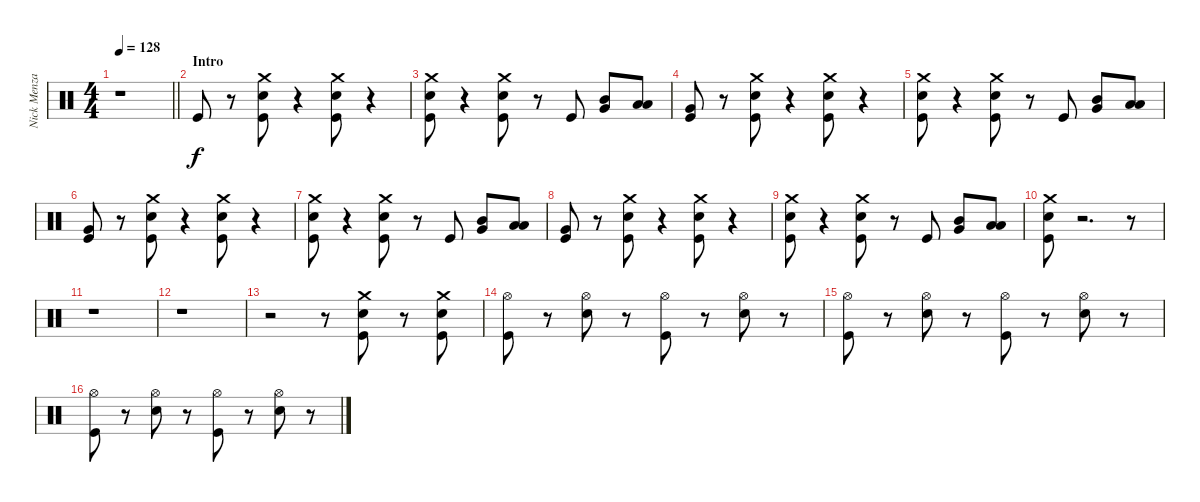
\track ("Nick Menza" "Nick Menza") {instrument percussion}
\staff {score}
\articulation defaults
\ts (4 4)
\tempo 128
\clef neutral
\barLineRight lightlight
\ks c
r.1{dy f} |
\section ("" "Intro")
"Kick (hit)".8 r.8 ("Kick (hit)" "Electric Snare (hit)" "Crash medium (hit)").8 r.4 ("Kick (hit)" "Electric Snare (hit)" "Crash medium (hit)").8 r.4 |
("Kick (hit)" "Electric Snare (hit)" "Crash medium (hit)").8 r.4 ("Kick (hit)" "Electric Snare (hit)" "Crash medium (hit)").8 r.8 "Kick (hit)".8 ("Mid Tom (hit)" "Very Low Tom (hit)").8 ("Low Floor Tom (hit)" "Low Tom (hit)").8 |
("Very Low Tom (hit)" "Kick (hit)").8 r.8 ("Kick (hit)" "Electric Snare (hit)" "Crash medium (hit)").8 r.4 ("Kick (hit)" "Electric Snare (hit)" "Crash medium (hit)").8 r.4 |
("Kick (hit)" "Electric Snare (hit)" "Crash medium (hit)").8 r.4 ("Kick (hit)" "Electric Snare (hit)" "Crash medium (hit)").8 r.8 "Kick (hit)".8 ("Mid Tom (hit)" "Very Low Tom (hit)").8 ("Low Floor Tom (hit)" "Low Tom (hit)").8 |
("Very Low Tom (hit)" "Kick (hit)").8 r.8 ("Kick (hit)" "Electric Snare (hit)" "Crash medium (hit)").8 r.4 ("Kick (hit)" "Electric Snare (hit)" "Crash medium (hit)").8 r.4 |
("Kick (hit)" "Electric Snare (hit)" "Crash medium (hit)").8 r.4 ("Kick (hit)" "Electric Snare (hit)" "Crash medium (hit)").8 r.8 "Kick (hit)".8 ("Mid Tom (hit)" "Very Low Tom (hit)").8 ("Low Floor Tom (hit)" "Low Tom (hit)").8 |
("Very Low Tom (hit)" "Kick (hit)").8 r.8 ("Kick (hit)" "Electric Snare (hit)" "Crash medium (hit)").8 r.4 ("Kick (hit)" "Electric Snare (hit)" "Crash medium (hit)").8 r.4 |
("Kick (hit)" "Electric Snare (hit)" "Crash medium (hit)").8 r.4 ("Kick (hit)" "Electric Snare (hit)" "Crash medium (hit)").8 r.8 "Kick (hit)".8 ("Mid Tom (hit)" "Very Low Tom (hit)").8 ("Low Floor Tom (hit)" "Low Tom (hit)").8 |
("Kick (hit)" "Electric Snare (hit)" "Crash medium (hit)").8 r.2{d} r.8 |
r.1 |
r.1 |
r.2 r.8 ("Kick (hit)" "Crash medium (hit)" "Electric Snare (hit)").8 r.8 ("Kick (hit)" "Crash medium (hit)" "Electric Snare (hit)").8 |
("Hi-Hat (open)" "Kick (hit)").8 r.8 ("Hi-Hat (open)" "Electric Snare (hit)").8 r.8 ("Hi-Hat (open)" "Kick (hit)").8 r.8 ("Hi-Hat (open)" "Electric Snare (hit)").8 r.8 |
("Hi-Hat (open)" "Kick (hit)").8 r.8 ("Hi-Hat (open)" "Electric Snare (hit)").8 r.8 ("Hi-Hat (open)" "Kick (hit)").8 r.8 ("Hi-Hat (open)" "Electric Snare (hit)").8 r.8 |
("Hi-Hat (open)" "Kick (hit)").8 r.8 ("Hi-Hat (open)" "Electric Snare (hit)").8 r.8 ("Hi-Hat (open)" "Kick (hit)").8 r.8 ("Hi-Hat (open)" "Electric Snare (hit)").8 r.8
